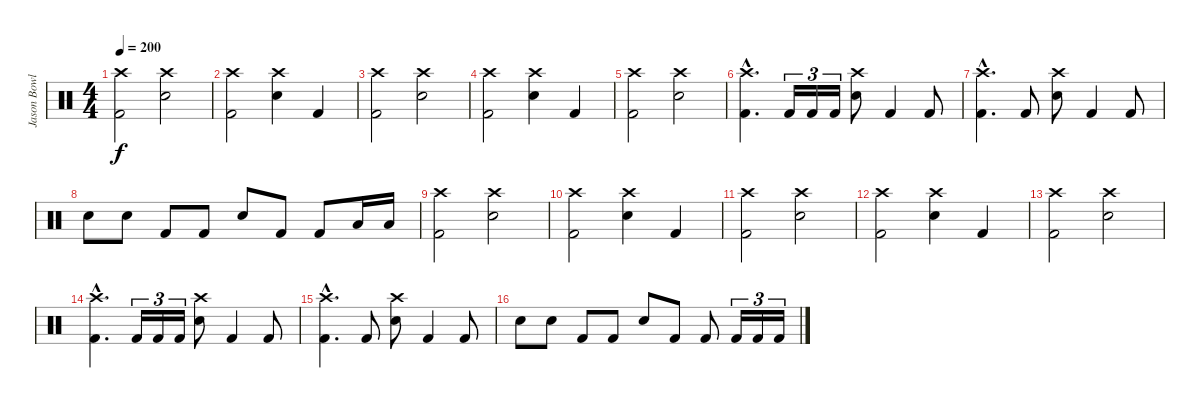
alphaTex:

\track ("Jason Bowld" "Jason Bowl") {instrument percussion}
\staff {score}
\articulation defaults
\ts (4 4)
\tempo 200
\clef neutral
\ks c
("Crash high (hit)" "Kick (hit) 2").2{dy f} ("Crash high (hit)" "Snare (hit) 2").2 |
("Crash high (hit)" "Kick (hit) 2").2 ("Crash high (hit)" "Snare (hit) 2").4 "Kick (hit) 2".4 |
("Crash high (hit)" "Kick (hit) 2").2 ("Crash high (hit)" "Snare (hit) 2").2 |
("Crash high (hit)" "Kick (hit) 2").2 ("Crash high (hit)" "Snare (hit) 2").4 "Kick (hit) 2".4 |
("Crash high (hit)" "Kick (hit) 2").2 ("Crash high (hit)" "Snare (hit) 2").2 |
("Crash high (hit)"{hac} "Kick (hit) 2"{hac}).4{d} "Kick (hit) 2".16{tu (3 2)} "Kick (hit) 2".16{tu (3 2)} "Kick (hit) 2".16{tu (3 2)} ("Crash high (hit)" "Snare (hit) 2").8 "Kick (hit) 2".4 "Kick (hit) 2".8 |
("Crash high (hit)"{hac} "Kick (hit) 2"{hac}).4{d} "Kick (hit) 2".8 ("Crash high (hit)" "Snare (hit) 2").8 "Kick (hit) 2".4 "Kick (hit) 2".8 |
"Snare (hit) 2".8 "Snare (hit) 2".8 "Kick (hit) 2".8 "Kick (hit) 2".8 "Snare (hit) 2".8 "Kick (hit) 2".8 "Kick (hit) 2".8 "Low Tom (hit)".16 "Low Tom (hit)".16 |
("Crash high (hit)" "Kick (hit) 2").2 ("Crash high (hit)" "Snare (hit) 2").2 |
("Crash high (hit)" "Kick (hit) 2").2 ("Crash high (hit)" "Snare (hit) 2").4 "Kick (hit) 2".4 |
("Crash high (hit)" "Kick (hit) 2").2 ("Crash high (hit)" "Snare (hit) 2").2 |
("Crash high (hit)" "Kick (hit) 2").2 ("Crash high (hit)" "Snare (hit) 2").4 "Kick (hit) 2".4 |
("Crash high (hit)" "Kick (hit) 2").2 ("Crash high (hit)" "Snare (hit) 2").2 |
("Crash high (hit)"{hac} "Kick (hit) 2"{hac}).4{d} "Kick (hit) 2".16{tu (3 2)} "Kick (hit) 2".16{tu (3 2)} "Kick (hit) 2".16{tu (3 2)} ("Crash high (hit)" "Snare (hit) 2").8 "Kick (hit) 2".4 "Kick (hit) 2".8 |
("Crash high (hit)"{hac} "Kick (hit) 2"{hac}).4{d} "Kick (hit) 2".8 ("Crash high (hit)" "Snare (hit) 2").8 "Kick (hit) 2".4 "Kick (hit) 2".8 |
"Snare (hit) 2".8 "Snare (hit) 2".8 "Kick (hit) 2".8 "Kick (hit) 2".8 "Snare (hit) 2".8 "Kick (hit) 2".8 "Kick (hit) 2".8 "Kick (hit) 2".16{tu (3 2)} "Kick (hit) 2".16{tu (3 2)} "Kick (hit) 2".16{tu (3 2)}
